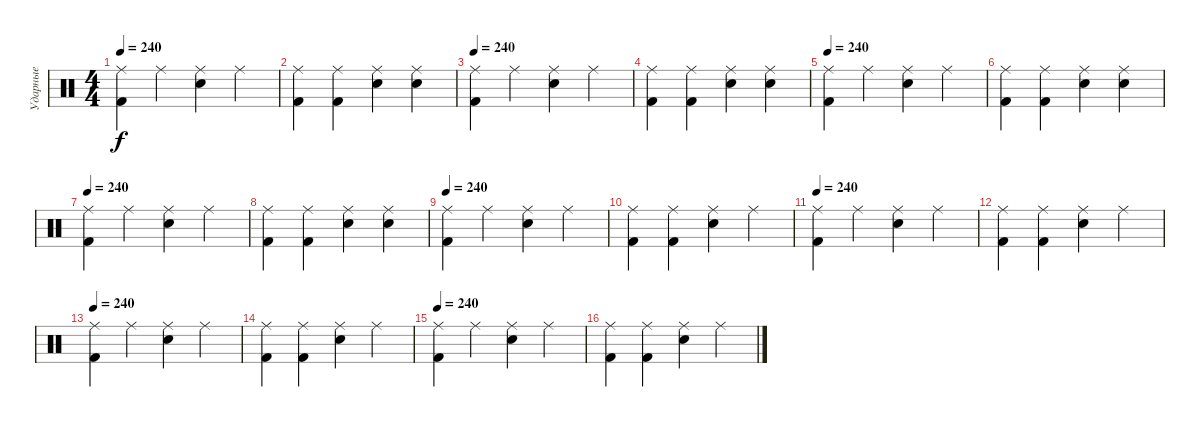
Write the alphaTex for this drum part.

\track ("Ударные" "Ударные") {instrument percussion}
\staff {score}
\articulation defaults
\ts (4 4)
\tempo 240
\clef neutral
\ks c
("Ride (middle)" "Kick (hit) 2").4{dy f} "Ride (middle)".4 ("Ride (middle)" "Electric Snare (hit)").4 "Ride (middle)".4 |
("Ride (middle)" "Kick (hit) 2").4 ("Ride (middle)" "Kick (hit) 2").4 ("Ride (middle)" "Electric Snare (hit)").4 ("Ride (middle)" "Electric Snare (hit)").4 |
\tempo 240
("Ride (middle)" "Kick (hit) 2").4 "Ride (middle)".4 ("Ride (middle)" "Electric Snare (hit)").4 "Ride (middle)".4 |
("Ride (middle)" "Kick (hit) 2").4 ("Ride (middle)" "Kick (hit) 2").4 ("Ride (middle)" "Electric Snare (hit)").4 ("Ride (middle)" "Electric Snare (hit)").4 |
\tempo 240
("Ride (middle)" "Kick (hit) 2").4 "Ride (middle)".4 ("Ride (middle)" "Electric Snare (hit)").4 "Ride (middle)".4 |
("Ride (middle)" "Kick (hit) 2").4 ("Ride (middle)" "Kick (hit) 2").4 ("Ride (middle)" "Electric Snare (hit)").4 ("Ride (middle)" "Electric Snare (hit)").4 |
\tempo 240
("Ride (middle)" "Kick (hit) 2").4 "Ride (middle)".4 ("Ride (middle)" "Electric Snare (hit)").4 "Ride (middle)".4 |
("Ride (middle)" "Kick (hit) 2").4 ("Ride (middle)" "Kick (hit) 2").4 ("Ride (middle)" "Electric Snare (hit)").4 ("Ride (middle)" "Electric Snare (hit)").4 |
\tempo 240
("Ride (middle)" "Kick (hit) 2").4 "Ride (middle)".4 ("Ride (middle)" "Electric Snare (hit)").4 "Ride (middle)".4 |
("Ride (middle)" "Kick (hit) 2").4 ("Ride (middle)" "Kick (hit) 2").4 ("Ride (middle)" "Electric Snare (hit)").4 "Ride (middle)".4 |
\tempo 240
("Ride (middle)" "Kick (hit) 2").4 "Ride (middle)".4 ("Ride (middle)" "Electric Snare (hit)").4 "Ride (middle)".4 |
("Ride (middle)" "Kick (hit) 2").4 ("Ride (middle)" "Kick (hit) 2").4 ("Ride (middle)" "Electric Snare (hit)").4 "Ride (middle)".4 |
\tempo 240
("Ride (middle)" "Kick (hit) 2").4 "Ride (middle)".4 ("Ride (middle)" "Electric Snare (hit)").4 "Ride (middle)".4 |
("Ride (middle)" "Kick (hit) 2").4 ("Ride (middle)" "Kick (hit) 2").4 ("Ride (middle)" "Electric Snare (hit)").4 "Ride (middle)".4 |
\tempo 240
("Ride (middle)" "Kick (hit) 2").4 "Ride (middle)".4 ("Ride (middle)" "Electric Snare (hit)").4 "Ride (middle)".4 |
("Ride (middle)" "Kick (hit) 2").4 ("Ride (middle)" "Kick (hit) 2").4 ("Ride (middle)" "Electric Snare (hit)").4 "Ride (middle)".4
